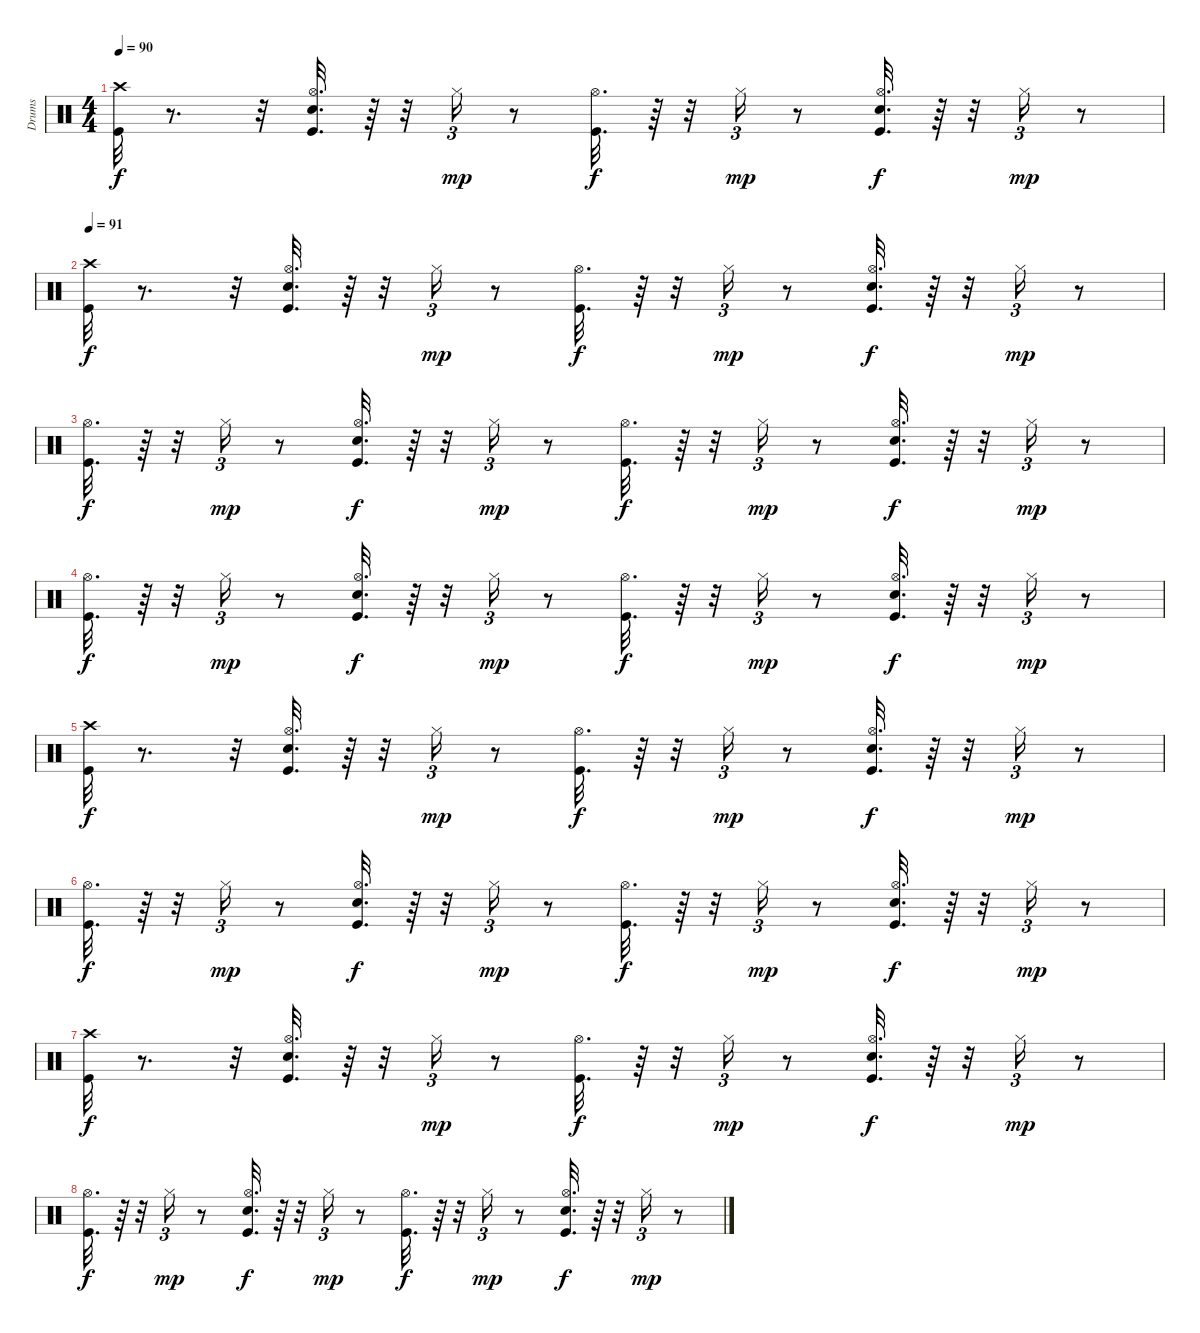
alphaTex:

\track ("Drums" "Drums") {instrument percussion}
\staff {score}
\articulation defaults
\ts (4 4)
\tempo 90
\clef neutral
\ks c
("Crash high (hit)" "Kick (hit)").32{dy f} r.8{d} r.32 ("Kick (hit)" "Hi-Hat (open)" "Snare (hit) 2").32{d} r.64 r.32 "Hi-Hat (closed)".16{tu (3 2) dy mp} r.8 ("Hi-Hat (open)" "Kick (hit)").32{d dy f} r.64 r.32 "Hi-Hat (closed)".16{tu (3 2) dy mp} r.8 ("Kick (hit)" "Hi-Hat (open)" "Snare (hit) 2").32{d dy f} r.64 r.32 "Hi-Hat (closed)".16{tu (3 2) dy mp} r.8 |
\tempo 91
("Crash high (hit)" "Kick (hit)").32{dy f} r.8{d} r.32 ("Kick (hit)" "Hi-Hat (open)" "Snare (hit) 2").32{d} r.64 r.32 "Hi-Hat (closed)".16{tu (3 2) dy mp} r.8 ("Hi-Hat (open)" "Kick (hit)").32{d dy f} r.64 r.32 "Hi-Hat (closed)".16{tu (3 2) dy mp} r.8 ("Kick (hit)" "Hi-Hat (open)" "Snare (hit) 2").32{d dy f} r.64 r.32 "Hi-Hat (closed)".16{tu (3 2) dy mp} r.8 |
("Hi-Hat (open)" "Kick (hit)").32{d dy f} r.64 r.32 "Hi-Hat (closed)".16{tu (3 2) dy mp} r.8 ("Hi-Hat (open)" "Snare (hit) 2" "Kick (hit)").32{d dy f} r.64 r.32 "Hi-Hat (closed)".16{tu (3 2) dy mp} r.8 ("Hi-Hat (open)" "Kick (hit)").32{d dy f} r.64 r.32 "Hi-Hat (closed)".16{tu (3 2) dy mp} r.8 ("Kick (hit)" "Hi-Hat (open)" "Snare (hit) 2").32{d dy f} r.64 r.32 "Hi-Hat (closed)".16{tu (3 2) dy mp} r.8 |
("Hi-Hat (open)" "Kick (hit)").32{d dy f} r.64 r.32 "Hi-Hat (closed)".16{tu (3 2) dy mp} r.8 ("Hi-Hat (open)" "Kick (hit)" "Snare (hit) 2").32{d dy f} r.64 r.32 "Hi-Hat (closed)".16{tu (3 2) dy mp} r.8 ("Kick (hit)" "Hi-Hat (open)").32{d dy f} r.64 r.32 "Hi-Hat (closed)".16{tu (3 2) dy mp} r.8 ("Kick (hit)" "Snare (hit) 2" "Hi-Hat (open)").32{d dy f} r.64 r.32 "Hi-Hat (closed)".16{tu (3 2) dy mp} r.8 |
("Crash high (hit)" "Kick (hit)").32{dy f} r.8{d} r.32 ("Kick (hit)" "Hi-Hat (open)" "Snare (hit) 2").32{d} r.64 r.32 "Hi-Hat (closed)".16{tu (3 2) dy mp} r.8 ("Hi-Hat (open)" "Kick (hit)").32{d dy f} r.64 r.32 "Hi-Hat (closed)".16{tu (3 2) dy mp} r.8 ("Kick (hit)" "Hi-Hat (open)" "Snare (hit) 2").32{d dy f} r.64 r.32 "Hi-Hat (closed)".16{tu (3 2) dy mp} r.8 |
("Hi-Hat (open)" "Kick (hit)").32{d dy f} r.64 r.32 "Hi-Hat (closed)".16{tu (3 2) dy mp} r.8 ("Hi-Hat (open)" "Kick (hit)" "Snare (hit) 2").32{d dy f} r.64 r.32 "Hi-Hat (closed)".16{tu (3 2) dy mp} r.8 ("Kick (hit)" "Hi-Hat (open)").32{d dy f} r.64 r.32 "Hi-Hat (closed)".16{tu (3 2) dy mp} r.8 ("Kick (hit)" "Snare (hit) 2" "Hi-Hat (open)").32{d dy f} r.64 r.32 "Hi-Hat (closed)".16{tu (3 2) dy mp} r.8 |
("Crash high (hit)" "Kick (hit)").32{dy f} r.8{d} r.32 ("Kick (hit)" "Hi-Hat (open)" "Snare (hit) 2").32{d} r.64 r.32 "Hi-Hat (closed)".16{tu (3 2) dy mp} r.8 ("Hi-Hat (open)" "Kick (hit)").32{d dy f} r.64 r.32 "Hi-Hat (closed)".16{tu (3 2) dy mp} r.8 ("Kick (hit)" "Hi-Hat (open)" "Snare (hit) 2").32{d dy f} r.64 r.32 "Hi-Hat (closed)".16{tu (3 2) dy mp} r.8 |
("Hi-Hat (open)" "Kick (hit)").32{d dy f} r.64 r.32 "Hi-Hat (closed)".16{tu (3 2) dy mp} r.8 ("Hi-Hat (open)" "Kick (hit)" "Snare (hit) 2").32{d dy f} r.64 r.32 "Hi-Hat (closed)".16{tu (3 2) dy mp} r.8 ("Kick (hit)" "Hi-Hat (open)").32{d dy f} r.64 r.32 "Hi-Hat (closed)".16{tu (3 2) dy mp} r.8 ("Kick (hit)" "Snare (hit) 2" "Hi-Hat (open)").32{d dy f} r.64 r.32 "Hi-Hat (closed)".16{tu (3 2) dy mp} r.8
